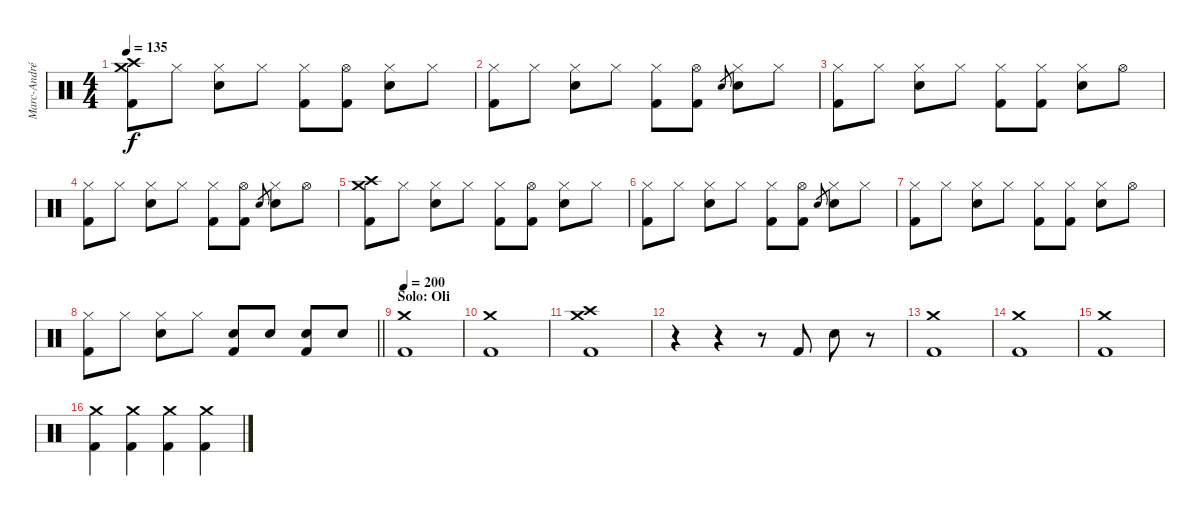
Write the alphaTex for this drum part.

\track ("Marc-André Barabé" "Marc-André") {instrument percussion}
\staff {score}
\articulation defaults
\ts (4 4)
\tempo 135
\clef neutral
\ks c
("Crash high (hit)" "Crash medium (hit)" "Kick (hit) 2").8{dy f} "Hi-Hat (closed)".8 ("Hi-Hat (closed)" "Electric Snare (hit)").8 "Hi-Hat (closed)".8 ("Hi-Hat (closed)" "Kick (hit) 2").8 ("Hi-Hat (open)" "Kick (hit) 2").8 ("Hi-Hat (closed)" "Electric Snare (hit)").8 "Hi-Hat (closed)".8 |
("Hi-Hat (closed)" "Kick (hit) 2").8 "Hi-Hat (closed)".8 ("Hi-Hat (closed)" "Electric Snare (hit)").8 "Hi-Hat (closed)".8 ("Hi-Hat (closed)" "Kick (hit) 2").8 ("Hi-Hat (open)" "Kick (hit) 2").8 "Electric Snare (hit)".8{gr} ("Hi-Hat (closed)" "Electric Snare (hit)").8 "Hi-Hat (closed)".8 |
("Hi-Hat (closed)" "Kick (hit) 2").8 "Hi-Hat (closed)".8 ("Hi-Hat (closed)" "Electric Snare (hit)").8 "Hi-Hat (closed)".8 ("Hi-Hat (closed)" "Kick (hit) 2").8 ("Hi-Hat (closed)" "Kick (hit) 2").8 ("Hi-Hat (closed)" "Electric Snare (hit)").8 "Hi-Hat (open)".8 |
("Hi-Hat (closed)" "Kick (hit) 2").8 "Hi-Hat (closed)".8 ("Hi-Hat (closed)" "Electric Snare (hit)").8 "Hi-Hat (closed)".8 ("Hi-Hat (closed)" "Kick (hit) 2").8 ("Hi-Hat (open)" "Kick (hit) 2").8 "Electric Snare (hit)".8{gr} ("Hi-Hat (closed)" "Electric Snare (hit)").8 "Hi-Hat (open)".8 |
("Crash high (hit)" "Crash medium (hit)" "Kick (hit) 2").8 "Hi-Hat (closed)".8 ("Hi-Hat (closed)" "Electric Snare (hit)").8 "Hi-Hat (closed)".8 ("Hi-Hat (closed)" "Kick (hit) 2").8 ("Hi-Hat (open)" "Kick (hit) 2").8 ("Hi-Hat (closed)" "Electric Snare (hit)").8 "Hi-Hat (closed)".8 |
("Hi-Hat (closed)" "Kick (hit) 2").8 "Hi-Hat (closed)".8 ("Hi-Hat (closed)" "Electric Snare (hit)").8 "Hi-Hat (closed)".8 ("Hi-Hat (closed)" "Kick (hit) 2").8 ("Hi-Hat (open)" "Kick (hit) 2").8 "Electric Snare (hit)".8{gr} ("Hi-Hat (closed)" "Electric Snare (hit)").8 "Hi-Hat (closed)".8 |
("Hi-Hat (closed)" "Kick (hit) 2").8 "Hi-Hat (closed)".8 ("Hi-Hat (closed)" "Electric Snare (hit)").8 "Hi-Hat (closed)".8 ("Hi-Hat (closed)" "Kick (hit) 2").8 ("Hi-Hat (closed)" "Kick (hit) 2").8 ("Hi-Hat (closed)" "Electric Snare (hit)").8 "Hi-Hat (open)".8 |
\barLineRight lightlight
("Hi-Hat (closed)" "Kick (hit) 2").8 "Hi-Hat (closed)".8 ("Hi-Hat (closed)" "Electric Snare (hit)").8 "Hi-Hat (closed)".8 ("Electric Snare (hit)" "Kick (hit) 2").8 "Electric Snare (hit)".8 ("Electric Snare (hit)"{tr (4 32)} "Kick (hit) 2").8 "Electric Snare (hit)"{tr (4 32)}.8 |
\section ("" "Solo: Oli")
\tempo 200
("Crash medium (hit)" "Kick (hit) 2").1 |
("Crash medium (hit)" "Kick (hit) 2").1 |
("Crash high (hit)" "Crash medium (hit)" "Kick (hit) 2").1 |
r.4 r.4 r.8 "Kick (hit) 2".8 "Electric Snare (hit)".8 r.8 |
("Crash medium (hit)" "Kick (hit) 2").1 |
("Crash medium (hit)" "Kick (hit) 2").1 |
("Crash medium (hit)" "Kick (hit) 2").1 |
("Crash medium (hit)" "Kick (hit) 2").4 ("Crash medium (hit)" "Kick (hit) 2").4 ("Crash medium (hit)" "Kick (hit) 2").4 ("Crash medium (hit)" "Kick (hit) 2").4
